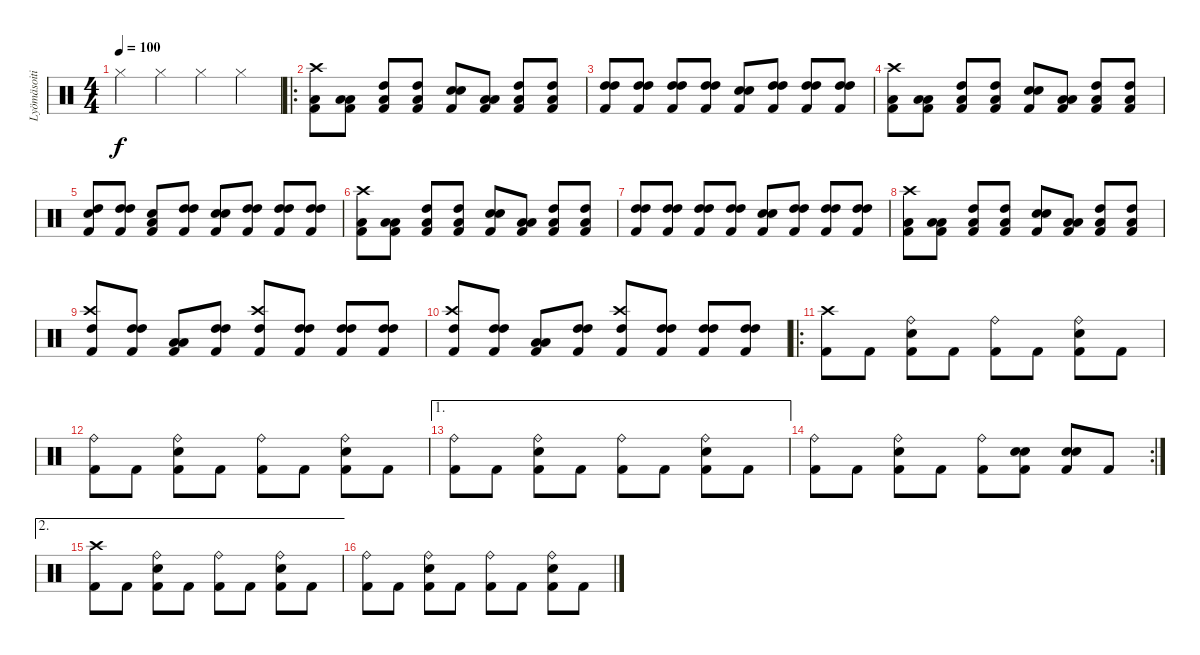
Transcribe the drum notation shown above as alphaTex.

\track ("Lyömäsoitin" "Lyömäsoiti") {instrument percussion}
\staff {score}
\articulation defaults
\ts (4 4)
\tempo 100
\clef neutral
\ks c "Hi-Hat (closed)".4{dy f} "Hi-Hat (closed)".4 "Hi-Hat (closed)".4 "Hi-Hat (closed)".4
|
\ro
("Kick (hit) 2" "Low Tom (hit)" "Crash high (hit)").8 ("Kick (hit) 2" "Low Tom (hit)" "Low Tom (hit)").8 ("Kick (hit) 2" "Low Tom (hit)" "High Tom (hit)").8 ("Kick (hit) 2" "Low Tom (hit)" "High Tom (hit)").8 ("Kick (hit) 2" "Electric Snare (hit)" "Electric Snare (hit)").8 ("Kick (hit) 2" "Low Tom (hit)" "Low Tom (hit)").8 ("Kick (hit) 2" "Low Tom (hit)" "High Tom (hit)").8 ("Kick (hit) 2" "Low Tom (hit)" "High Tom (hit)").8 |
("Kick (hit) 2" "High Tom (hit)" "High Tom (hit)").8 ("Kick (hit) 2" "High Tom (hit)" "High Tom (hit)").8 ("Kick (hit) 2" "High Tom (hit)" "High Tom (hit)").8 ("Kick (hit) 2" "High Tom (hit)" "High Tom (hit)").8 ("Kick (hit) 2" "Electric Snare (hit)" "Electric Snare (hit)").8 ("Kick (hit) 2" "High Tom (hit)" "High Tom (hit)").8 ("Kick (hit) 2" "High Tom (hit)" "High Tom (hit)").8 ("Kick (hit) 2" "High Tom (hit)" "High Tom (hit)").8 |
("Kick (hit) 2" "Crash high (hit)" "Low Tom (hit)").8 ("Kick (hit) 2" "Low Tom (hit)" "Low Tom (hit)").8 ("Kick (hit) 2" "Low Tom (hit)" "High Tom (hit)").8 ("Kick (hit) 2" "Low Tom (hit)" "High Tom (hit)").8 ("Kick (hit) 2" "Electric Snare (hit)" "Electric Snare (hit)").8 ("Kick (hit) 2" "Low Tom (hit)" "Low Tom (hit)").8 ("Kick (hit) 2" "Low Tom (hit)" "High Tom (hit)").8 ("Kick (hit) 2" "Low Tom (hit)" "High Tom (hit)").8 |
("Kick (hit) 2" "High Tom (hit)" "Electric Snare (hit)").8 ("Kick (hit) 2" "High Tom (hit)" "High Tom (hit)").8 ("Kick (hit) 2" "Low Tom (hit)" "Electric Snare (hit)").8 ("Kick (hit) 2" "High Tom (hit)" "High Tom (hit)").8 ("Kick (hit) 2" "Electric Snare (hit)" "Electric Snare (hit)").8 ("Kick (hit) 2" "High Tom (hit)" "High Tom (hit)").8 ("Kick (hit) 2" "High Tom (hit)" "High Tom (hit)").8 ("Kick (hit) 2" "High Tom (hit)" "High Tom (hit)").8 |
("Kick (hit) 2" "Low Tom (hit)" "Crash high (hit)").8 ("Kick (hit) 2" "Low Tom (hit)" "Low Tom (hit)").8 ("Kick (hit) 2" "Low Tom (hit)" "High Tom (hit)").8 ("Kick (hit) 2" "Low Tom (hit)" "High Tom (hit)").8 ("Kick (hit) 2" "Electric Snare (hit)" "Electric Snare (hit)").8 ("Kick (hit) 2" "Low Tom (hit)" "Low Tom (hit)").8 ("Kick (hit) 2" "Low Tom (hit)" "High Tom (hit)").8 ("Kick (hit) 2" "Low Tom (hit)" "High Tom (hit)").8 |
("Kick (hit) 2" "High Tom (hit)" "High Tom (hit)").8 ("Kick (hit) 2" "High Tom (hit)" "High Tom (hit)").8 ("Kick (hit) 2" "High Tom (hit)" "High Tom (hit)").8 ("Kick (hit) 2" "High Tom (hit)" "High Tom (hit)").8 ("Kick (hit) 2" "Electric Snare (hit)" "Electric Snare (hit)").8 ("Kick (hit) 2" "High Tom (hit)" "High Tom (hit)").8 ("Kick (hit) 2" "High Tom (hit)" "High Tom (hit)").8 ("Kick (hit) 2" "High Tom (hit)" "High Tom (hit)").8 |
("Kick (hit) 2" "Low Tom (hit)" "Crash high (hit)").8 ("Kick (hit) 2" "Low Tom (hit)" "Low Tom (hit)").8 ("Kick (hit) 2" "Low Tom (hit)" "High Tom (hit)").8 ("Kick (hit) 2" "Low Tom (hit)" "High Tom (hit)").8 ("Kick (hit) 2" "Electric Snare (hit)" "Electric Snare (hit)").8 ("Kick (hit) 2" "Low Tom (hit)" "Low Tom (hit)").8 ("Kick (hit) 2" "Low Tom (hit)" "High Tom (hit)").8 ("Kick (hit) 2" "Low Tom (hit)" "High Tom (hit)").8 |
("Kick (hit) 2" "High Tom (hit)" "Crash high (hit)").8 ("Kick (hit) 2" "High Tom (hit)" "High Tom (hit)").8 ("Kick (hit) 2" "Low Tom (hit)" "Low Tom (hit)").8 ("Kick (hit) 2" "High Tom (hit)" "High Tom (hit)").8 ("Kick (hit) 2" "High Tom (hit)" "Crash high (hit)").8 ("Kick (hit) 2" "High Tom (hit)" "High Tom (hit)").8 ("Kick (hit) 2" "High Tom (hit)" "High Tom (hit)").8 ("Kick (hit) 2" "High Tom (hit)" "High Tom (hit)").8 |
("Kick (hit) 2" "High Tom (hit)" "Crash high (hit)").8 ("Kick (hit) 2" "High Tom (hit)" "High Tom (hit)").8 ("Kick (hit) 2" "Low Tom (hit)" "Low Tom (hit)").8 ("Kick (hit) 2" "High Tom (hit)" "High Tom (hit)").8 ("Kick (hit) 2" "High Tom (hit)" "Crash high (hit)").8 ("Kick (hit) 2" "High Tom (hit)" "High Tom (hit)").8 ("Kick (hit) 2" "High Tom (hit)" "High Tom (hit)").8 ("Kick (hit) 2" "High Tom (hit)" "High Tom (hit)").8 |
\ro
("Kick (hit) 2" "Crash high (hit)").8 "Kick (hit) 2".8 ("Kick (hit) 2" "Ride (bell)" "Electric Snare (hit)").8 "Kick (hit) 2".8 ("Kick (hit) 2" "Ride (bell)").8 "Kick (hit) 2".8 ("Kick (hit) 2" "Ride (bell)" "Electric Snare (hit)").8 "Kick (hit) 2".8 |
("Kick (hit) 2" "Ride (bell)").8 "Kick (hit) 2".8 ("Kick (hit) 2" "Ride (bell)" "Electric Snare (hit)").8 "Kick (hit) 2".8 ("Kick (hit) 2" "Ride (bell)").8 "Kick (hit) 2".8 ("Kick (hit) 2" "Ride (bell)" "Electric Snare (hit)").8 "Kick (hit) 2".8 |
\ae 1
("Kick (hit) 2" "Ride (bell)").8 "Kick (hit) 2".8 ("Kick (hit) 2" "Ride (bell)" "Electric Snare (hit)").8 "Kick (hit) 2".8 ("Kick (hit) 2" "Ride (bell)").8 "Kick (hit) 2".8 ("Kick (hit) 2" "Ride (bell)" "Electric Snare (hit)").8 "Kick (hit) 2".8 |
\rc 2
("Kick (hit) 2" "Ride (bell)").8 "Kick (hit) 2".8 ("Kick (hit) 2" "Ride (bell)" "Electric Snare (hit)").8 "Kick (hit) 2".8 ("Kick (hit) 2" "Ride (bell)").8 ("Kick (hit) 2" "Electric Snare (hit)" "Electric Snare (hit)").8 ("Kick (hit) 2" "Electric Snare (hit)" "Electric Snare (hit)").8 "Kick (hit) 2".8 |
\ae 2
("Kick (hit) 2" "Crash high (hit)").8 "Kick (hit) 2".8 ("Kick (hit) 2" "Ride (bell)" "Electric Snare (hit)").8 "Kick (hit) 2".8 ("Kick (hit) 2" "Ride (bell)").8 "Kick (hit) 2".8 ("Kick (hit) 2" "Ride (bell)" "Electric Snare (hit)").8 "Kick (hit) 2".8 |
("Kick (hit) 2" "Ride (bell)").8 "Kick (hit) 2".8 ("Kick (hit) 2" "Ride (bell)" "Electric Snare (hit)").8 "Kick (hit) 2".8 ("Kick (hit) 2" "Ride (bell)").8 "Kick (hit) 2".8 ("Kick (hit) 2" "Ride (bell)" "Electric Snare (hit)").8 "Kick (hit) 2".8
